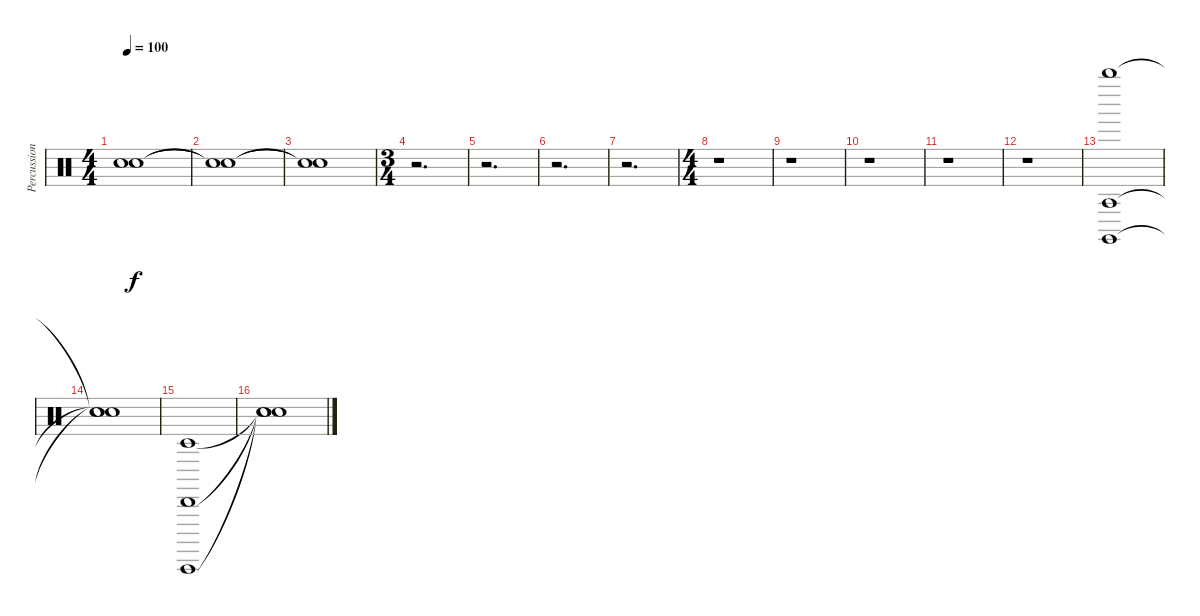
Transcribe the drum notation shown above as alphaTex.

\track ("Percussion Organ" "Percussion") {instrument percussion}
\staff {score}
\articulation defaults
\ts (4 4)
\tempo 100
\clef neutral
\ks c
("Snare (hit)"{t} "Snare (hit)"{t}).1{dy f} |
("Snare (hit)"{t} "Snare (hit)"{t}).1 |
("Snare (hit)"{t} "Snare (hit)"{t}).1 |
\ts (3 4)
r.2{d} |
r.2{d} |
r.2{d} |
r.2{d} |
\ts (4 4)
r.1 |
r.1 |
r.1 |
r.1 |
r.1 |
("Whistle high (hit)" "Claves (hit)" "Agogo tow (hit)").1 |
("Snare (hit)"{t} "Snare (hit)"{t} "Snare (hit)"{t}).1 |
("Timbale low (hit)" "Cabasa (hit)" "Guiro (hit)").1 |
("Snare (hit)"{t} "Snare (hit)"{t} "Snare (hit)"{t}).1
